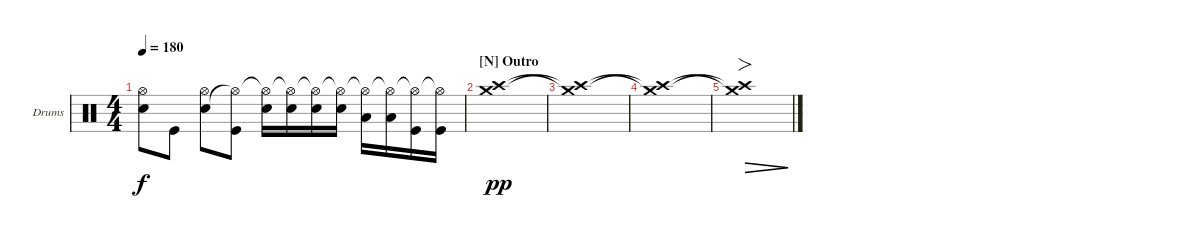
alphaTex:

\defaultSystemsLayout 4
\bracketExtendMode groupsimilarinstruments
\firstSystemTrackNameOrientation horizontal
\otherSystemsTrackNameOrientation horizontal
\track ("Drumkit" "Drums") {instrument percussion}
\staff {score}
\articulation defaults
\ts (4 4)
\tempo 180
\clef neutral
\ks c
("Hi-Hat (open)" "Snare (hit) 2").8{dy f} "Kick (hit)".8 ("Hi-Hat (open)" "Snare (hit) 2").8 ("Kick (hit)" "Hi-Hat (open)"{t}).8 ("Snare (hit) 2" "Hi-Hat (open)"{t}).16 ("Snare (hit) 2" "Hi-Hat (open)"{t}).16 ("Snare (hit) 2" "Hi-Hat (open)"{t}).16 ("Snare (hit) 2" "Hi-Hat (open)"{t}).16 ("Low Tom (hit)" "Hi-Hat (open)"{t}).16 ("Low Tom (hit)" "Hi-Hat (open)"{t}).16 ("Kick (hit)" "Hi-Hat (open)"{t}).16 ("Kick (hit)" "Hi-Hat (open)"{t}).16 |
\section ("N" "Outro")
("Crash high (hit)" "Crash medium (hit)").1{dy pp} |
("Crash medium (hit)"{t} "Crash high (hit)"{t}).1 |
("Crash high (hit)"{t} "Crash medium (hit)"{t}).1 |
("Crash medium (hit)"{t} "Crash high (hit)"{t}).1{fo dec}
